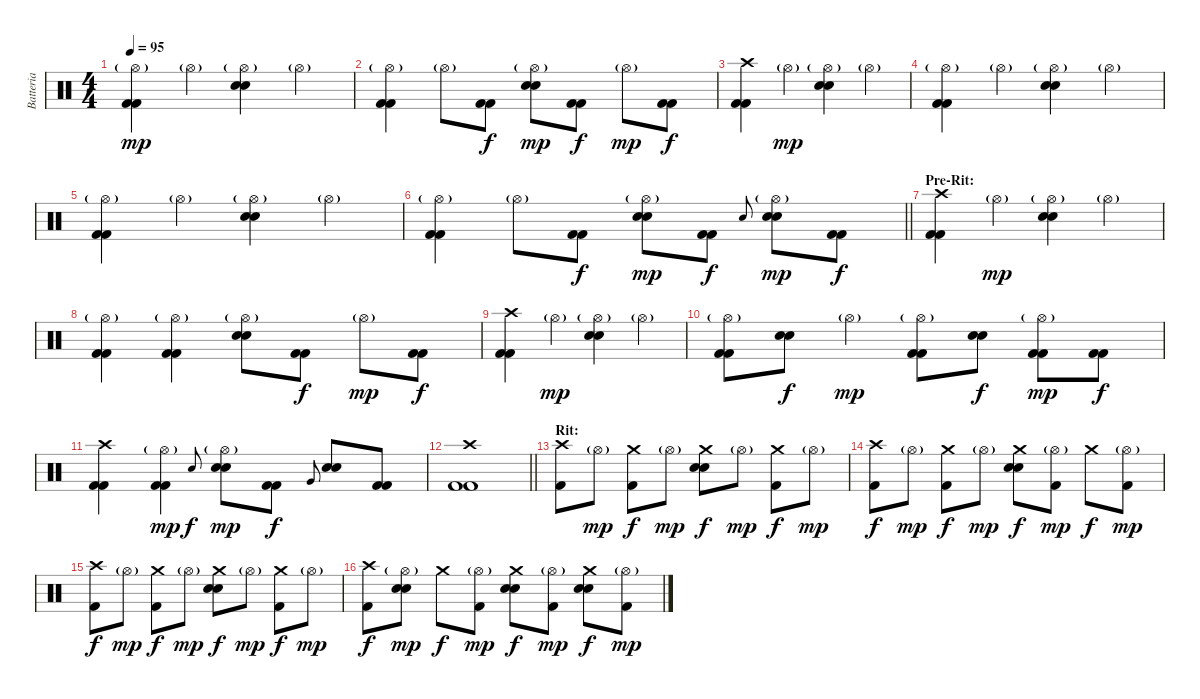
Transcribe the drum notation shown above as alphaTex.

\track ("Batteria" "Batteria") {instrument percussion}
\staff {score}
\articulation defaults
\ts (4 4)
\tempo 95
\clef neutral
\ks c
("Kick (hit) 2" "Kick (hit) 2" "Hi-Hat (open)"{g}).4{dy mp} "Hi-Hat (open)"{g}.4 ("Snare (hit) 2" "Snare (hit) 2" "Hi-Hat (open)"{g}).4 "Hi-Hat (open)"{g}.4 |
("Kick (hit) 2" "Kick (hit) 2" "Hi-Hat (open)"{g}).4 "Hi-Hat (open)"{g}.8 ("Kick (hit) 2" "Kick (hit) 2").8{dy f} ("Snare (hit) 2" "Snare (hit) 2" "Hi-Hat (open)"{g}).8{dy mp} ("Kick (hit) 2" "Kick (hit) 2").8{dy f} "Hi-Hat (open)"{g}.8{dy mp} ("Kick (hit) 2" "Kick (hit) 2").8{dy f} |
("Kick (hit) 2" "Kick (hit) 2" "Crash high (hit)").4 "Hi-Hat (open)"{g}.4{dy mp} ("Snare (hit) 2" "Snare (hit) 2" "Hi-Hat (open)"{g}).4 "Hi-Hat (open)"{g}.4 |
("Kick (hit) 2" "Kick (hit) 2" "Hi-Hat (open)"{g}).4 "Hi-Hat (open)"{g}.4 ("Snare (hit) 2" "Snare (hit) 2" "Hi-Hat (open)"{g}).4 "Hi-Hat (open)"{g}.4 |
("Kick (hit) 2" "Kick (hit) 2" "Hi-Hat (open)"{g}).4 "Hi-Hat (open)"{g}.4 ("Snare (hit) 2" "Snare (hit) 2" "Hi-Hat (open)"{g}).4 "Hi-Hat (open)"{g}.4 |
\barLineRight lightlight
("Kick (hit) 2" "Kick (hit) 2" "Hi-Hat (open)"{g}).4 "Hi-Hat (open)"{g}.8 ("Kick (hit) 2" "Kick (hit) 2").8{dy f} ("Snare (hit) 2" "Snare (hit) 2" "Hi-Hat (open)"{g}).8{dy mp} ("Kick (hit) 2" "Kick (hit) 2").8{dy f} "Snare (hit) 2".8{gr onbeat} ("Snare (hit) 2" "Snare (hit) 2" "Hi-Hat (open)"{g}).8{dy mp} ("Kick (hit) 2" "Kick (hit) 2").8{dy f} |
\section ("" "Pre-Rit:")
("Kick (hit) 2" "Kick (hit) 2" "Crash high (hit)").4 "Hi-Hat (open)"{g}.4{dy mp} ("Snare (hit) 2" "Snare (hit) 2" "Hi-Hat (open)"{g}).4 "Hi-Hat (open)"{g}.4 |
("Kick (hit) 2" "Kick (hit) 2" "Hi-Hat (open)"{g}).4 ("Kick (hit) 2" "Kick (hit) 2" "Hi-Hat (open)"{g}).4 ("Snare (hit) 2" "Snare (hit) 2" "Hi-Hat (open)"{g}).8 ("Kick (hit) 2" "Kick (hit) 2").8{dy f} "Hi-Hat (open)"{g}.8{dy mp} ("Kick (hit) 2" "Kick (hit) 2").8{dy f} |
("Kick (hit) 2" "Kick (hit) 2" "Crash high (hit)").4 "Hi-Hat (open)"{g}.4{dy mp} ("Snare (hit) 2" "Snare (hit) 2" "Hi-Hat (open)"{g}).4 "Hi-Hat (open)"{g}.4 |
("Kick (hit) 2" "Kick (hit) 2" "Hi-Hat (open)"{g}).8 ("Snare (hit) 2" "Snare (hit) 2").8{dy f} "Hi-Hat (open)"{g}.4{dy mp} ("Kick (hit) 2" "Kick (hit) 2" "Hi-Hat (open)"{g}).8 ("Snare (hit) 2" "Snare (hit) 2").8{dy f} ("Kick (hit) 2" "Kick (hit) 2" "Hi-Hat (open)"{g}).8{dy mp} ("Kick (hit) 2" "Kick (hit) 2").8{dy f} |
("Kick (hit) 2" "Kick (hit) 2" "Crash high (hit)").4 ("Kick (hit) 2" "Kick (hit) 2" "Hi-Hat (open)"{g}).4{dy mp} "Snare (hit) 2".8{gr onbeat dy f} ("Snare (hit) 2" "Snare (hit) 2" "Hi-Hat (open)"{g}).8{dy mp} ("Kick (hit) 2" "Kick (hit) 2").8{dy f} "Very Low Tom (hit)".8{gr onbeat} ("Snare (hit) 2" "Snare (hit) 2").8 ("Kick (hit) 2" "Kick (hit) 2").8 |
\barLineRight lightlight
("Kick (hit) 2" "Kick (hit) 2" "Crash high (hit)").1 |
\section ("" "Rit:")
("Kick (hit) 2" "Crash high (hit)").8 "Hi-Hat (open)"{g}.8{dy mp} ("Kick (hit) 2" "Crash medium (hit)").8{dy f} "Hi-Hat (open)"{g}.8{dy mp} ("Snare (hit) 2" "Snare (hit) 2" "Crash medium (hit)").8{dy f} "Hi-Hat (open)"{g}.8{dy mp} ("Kick (hit) 2" "Crash medium (hit)").8{dy f} "Hi-Hat (open)"{g}.8{dy mp} |
("Kick (hit) 2" "Crash high (hit)").8{dy f} "Hi-Hat (open)"{g}.8{dy mp} ("Kick (hit) 2" "Crash medium (hit)").8{dy f} "Hi-Hat (open)"{g}.8{dy mp} ("Snare (hit) 2" "Snare (hit) 2" "Crash medium (hit)").8{dy f} ("Kick (hit) 2" "Hi-Hat (open)"{g}).8{dy mp} "Crash medium (hit)".8{dy f} ("Kick (hit) 2" "Hi-Hat (open)"{g}).8{dy mp} |
("Kick (hit) 2" "Crash high (hit)").8{dy f} "Hi-Hat (open)"{g}.8{dy mp} ("Kick (hit) 2" "Crash medium (hit)").8{dy f} "Hi-Hat (open)"{g}.8{dy mp} ("Snare (hit) 2" "Snare (hit) 2" "Crash medium (hit)").8{dy f} "Hi-Hat (open)"{g}.8{dy mp} ("Kick (hit) 2" "Crash medium (hit)").8{dy f} "Hi-Hat (open)"{g}.8{dy mp} |
("Kick (hit) 2" "Crash high (hit)").8{dy f} ("Snare (hit) 2" "Snare (hit) 2" "Hi-Hat (open)"{g}).8{dy mp} "Crash medium (hit)".8{dy f} ("Kick (hit) 2" "Hi-Hat (open)"{g}).8{dy mp} ("Snare (hit) 2" "Snare (hit) 2" "Crash medium (hit)").8{dy f} ("Kick (hit) 2" "Hi-Hat (open)"{g}).8{dy mp} ("Snare (hit) 2" "Snare (hit) 2" "Crash medium (hit)").8{dy f} ("Kick (hit) 2" "Hi-Hat (open)"{g}).8{dy mp}
